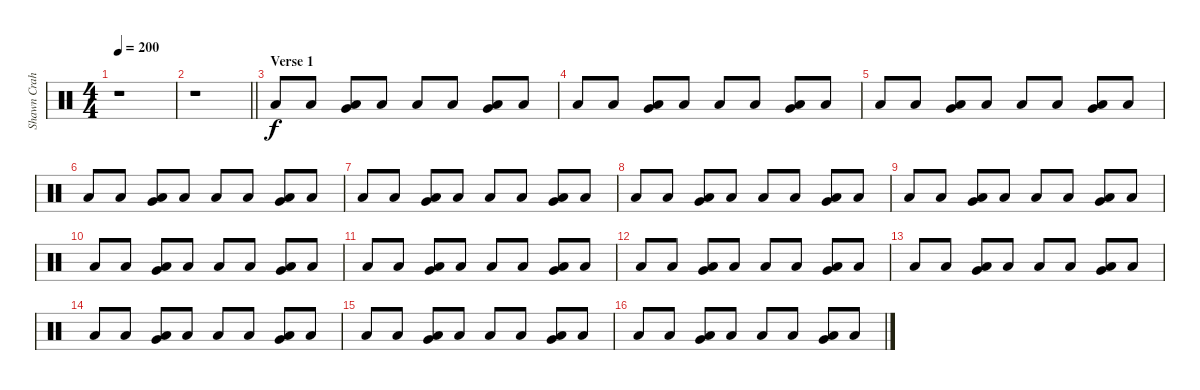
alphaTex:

\track ("Shawn Crahan" "Shawn Crah") {instrument percussion}
\staff {score}
\articulation defaults
\ts (4 4)
\tempo 200
\clef neutral
\ks c
r.1{dy f} |
\barLineRight lightlight
r.1 |
\section ("" "Verse 1")
"Low Floor Tom (hit)".8 "Low Floor Tom (hit)".8 ("Very Low Tom (hit)" "Low Floor Tom (hit)").8 "Low Floor Tom (hit)".8 "Low Floor Tom (hit)".8 "Low Floor Tom (hit)".8 ("Very Low Tom (hit)" "Low Floor Tom (hit)").8 "Low Floor Tom (hit)".8 |
"Low Floor Tom (hit)".8 "Low Floor Tom (hit)".8 ("Very Low Tom (hit)" "Low Floor Tom (hit)").8 "Low Floor Tom (hit)".8 "Low Floor Tom (hit)".8 "Low Floor Tom (hit)".8 ("Very Low Tom (hit)" "Low Floor Tom (hit)").8 "Low Floor Tom (hit)".8 |
"Low Floor Tom (hit)".8 "Low Floor Tom (hit)".8 ("Very Low Tom (hit)" "Low Floor Tom (hit)").8 "Low Floor Tom (hit)".8 "Low Floor Tom (hit)".8 "Low Floor Tom (hit)".8 ("Very Low Tom (hit)" "Low Floor Tom (hit)").8 "Low Floor Tom (hit)".8 |
"Low Floor Tom (hit)".8 "Low Floor Tom (hit)".8 ("Very Low Tom (hit)" "Low Floor Tom (hit)").8 "Low Floor Tom (hit)".8 "Low Floor Tom (hit)".8 "Low Floor Tom (hit)".8 ("Very Low Tom (hit)" "Low Floor Tom (hit)").8 "Low Floor Tom (hit)".8 |
"Low Floor Tom (hit)".8 "Low Floor Tom (hit)".8 ("Very Low Tom (hit)" "Low Floor Tom (hit)").8 "Low Floor Tom (hit)".8 "Low Floor Tom (hit)".8 "Low Floor Tom (hit)".8 ("Very Low Tom (hit)" "Low Floor Tom (hit)").8 "Low Floor Tom (hit)".8 |
"Low Floor Tom (hit)".8 "Low Floor Tom (hit)".8 ("Very Low Tom (hit)" "Low Floor Tom (hit)").8 "Low Floor Tom (hit)".8 "Low Floor Tom (hit)".8 "Low Floor Tom (hit)".8 ("Very Low Tom (hit)" "Low Floor Tom (hit)").8 "Low Floor Tom (hit)".8 |
"Low Floor Tom (hit)".8 "Low Floor Tom (hit)".8 ("Very Low Tom (hit)" "Low Floor Tom (hit)").8 "Low Floor Tom (hit)".8 "Low Floor Tom (hit)".8 "Low Floor Tom (hit)".8 ("Very Low Tom (hit)" "Low Floor Tom (hit)").8 "Low Floor Tom (hit)".8 |
"Low Floor Tom (hit)".8 "Low Floor Tom (hit)".8 ("Very Low Tom (hit)" "Low Floor Tom (hit)").8 "Low Floor Tom (hit)".8 "Low Floor Tom (hit)".8 "Low Floor Tom (hit)".8 ("Very Low Tom (hit)" "Low Floor Tom (hit)").8 "Low Floor Tom (hit)".8 |
"Low Floor Tom (hit)".8 "Low Floor Tom (hit)".8 ("Very Low Tom (hit)" "Low Floor Tom (hit)").8 "Low Floor Tom (hit)".8 "Low Floor Tom (hit)".8 "Low Floor Tom (hit)".8 ("Very Low Tom (hit)" "Low Floor Tom (hit)").8 "Low Floor Tom (hit)".8 |
"Low Floor Tom (hit)".8 "Low Floor Tom (hit)".8 ("Very Low Tom (hit)" "Low Floor Tom (hit)").8 "Low Floor Tom (hit)".8 "Low Floor Tom (hit)".8 "Low Floor Tom (hit)".8 ("Very Low Tom (hit)" "Low Floor Tom (hit)").8 "Low Floor Tom (hit)".8 |
"Low Floor Tom (hit)".8 "Low Floor Tom (hit)".8 ("Very Low Tom (hit)" "Low Floor Tom (hit)").8 "Low Floor Tom (hit)".8 "Low Floor Tom (hit)".8 "Low Floor Tom (hit)".8 ("Very Low Tom (hit)" "Low Floor Tom (hit)").8 "Low Floor Tom (hit)".8 |
"Low Floor Tom (hit)".8 "Low Floor Tom (hit)".8 ("Very Low Tom (hit)" "Low Floor Tom (hit)").8 "Low Floor Tom (hit)".8 "Low Floor Tom (hit)".8 "Low Floor Tom (hit)".8 ("Very Low Tom (hit)" "Low Floor Tom (hit)").8 "Low Floor Tom (hit)".8 |
"Low Floor Tom (hit)".8 "Low Floor Tom (hit)".8 ("Very Low Tom (hit)" "Low Floor Tom (hit)").8 "Low Floor Tom (hit)".8 "Low Floor Tom (hit)".8 "Low Floor Tom (hit)".8 ("Very Low Tom (hit)" "Low Floor Tom (hit)").8 "Low Floor Tom (hit)".8 |
"Low Floor Tom (hit)".8 "Low Floor Tom (hit)".8 ("Very Low Tom (hit)" "Low Floor Tom (hit)").8 "Low Floor Tom (hit)".8 "Low Floor Tom (hit)".8 "Low Floor Tom (hit)".8 ("Very Low Tom (hit)" "Low Floor Tom (hit)").8 "Low Floor Tom (hit)".8
